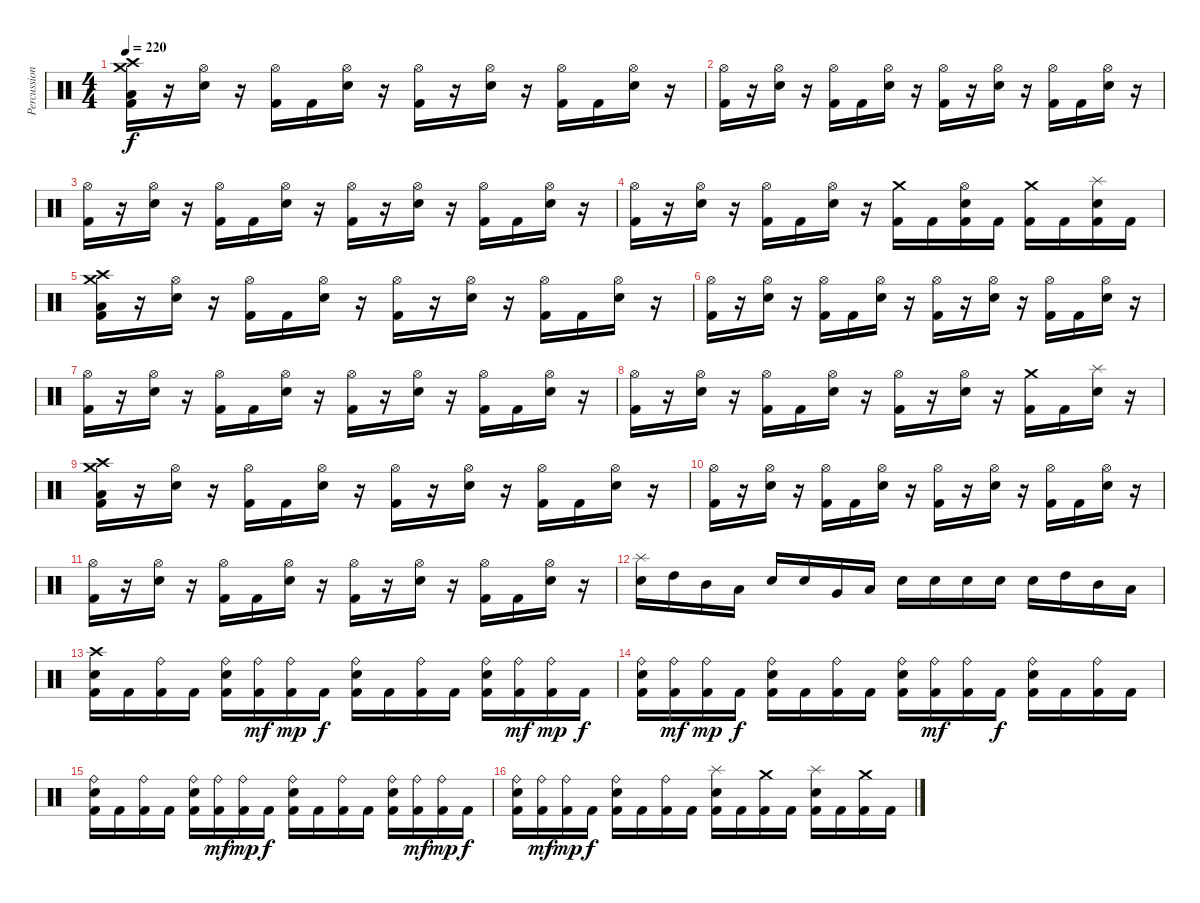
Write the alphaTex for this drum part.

\track ("Percussion" "Percussion") {instrument percussion}
\staff {score}
\articulation defaults
\ts (4 4)
\tempo 220
\clef neutral
\ks c
("Crash medium (hit)" "Crash high (hit)" "Low Floor Tom (hit)" "Kick (hit) 2").16{dy f} r.16 ("Hi-Hat (open)" "Electric Snare (hit)").16 r.16 ("Hi-Hat (open)" "Kick (hit) 2").16 "Kick (hit) 2".16 ("Hi-Hat (open)" "Electric Snare (hit)").16 r.16 ("Hi-Hat (open)" "Kick (hit) 2").16 r.16 ("Hi-Hat (open)" "Electric Snare (hit)").16 r.16 ("Hi-Hat (open)" "Kick (hit) 2").16 "Kick (hit) 2".16 ("Hi-Hat (open)" "Electric Snare (hit)").16 r.16 |
("Hi-Hat (open)" "Kick (hit) 2").16 r.16 ("Hi-Hat (open)" "Electric Snare (hit)").16 r.16 ("Hi-Hat (open)" "Kick (hit) 2").16 "Kick (hit) 2".16 ("Hi-Hat (open)" "Electric Snare (hit)").16 r.16 ("Hi-Hat (open)" "Kick (hit) 2").16 r.16 ("Hi-Hat (open)" "Electric Snare (hit)").16 r.16 ("Hi-Hat (open)" "Kick (hit) 2").16 "Kick (hit) 2".16 ("Hi-Hat (open)" "Electric Snare (hit)").16 r.16 |
("Hi-Hat (open)" "Kick (hit) 2").16 r.16 ("Hi-Hat (open)" "Electric Snare (hit)").16 r.16 ("Hi-Hat (open)" "Kick (hit) 2").16 "Kick (hit) 2".16 ("Hi-Hat (open)" "Electric Snare (hit)").16 r.16 ("Hi-Hat (open)" "Kick (hit) 2").16 r.16 ("Hi-Hat (open)" "Electric Snare (hit)").16 r.16 ("Hi-Hat (open)" "Kick (hit) 2").16 "Kick (hit) 2".16 ("Hi-Hat (open)" "Electric Snare (hit)").16 r.16 |
("Hi-Hat (open)" "Kick (hit) 2").16 r.16 ("Hi-Hat (open)" "Electric Snare (hit)").16 r.16 ("Hi-Hat (open)" "Kick (hit) 2").16 "Kick (hit) 2".16 ("Hi-Hat (open)" "Electric Snare (hit)").16 r.16 ("Crash medium (hit)" "Kick (hit) 2").16 "Kick (hit) 2".16 ("Hi-Hat (open)" "Electric Snare (hit)" "Kick (hit) 2").16 "Kick (hit) 2".16 ("Crash medium (hit)" "Kick (hit) 2").16 "Kick (hit) 2".16 ("Splash (hit)" "Electric Snare (hit)" "Kick (hit) 2").16 "Kick (hit) 2".16 |
("Crash medium (hit)" "Crash high (hit)" "Low Floor Tom (hit)" "Kick (hit) 2").16 r.16 ("Hi-Hat (open)" "Electric Snare (hit)").16 r.16 ("Hi-Hat (open)" "Kick (hit) 2").16 "Kick (hit) 2".16 ("Hi-Hat (open)" "Electric Snare (hit)").16 r.16 ("Hi-Hat (open)" "Kick (hit) 2").16 r.16 ("Hi-Hat (open)" "Electric Snare (hit)").16 r.16 ("Hi-Hat (open)" "Kick (hit) 2").16 "Kick (hit) 2".16 ("Hi-Hat (open)" "Electric Snare (hit)").16 r.16 |
("Hi-Hat (open)" "Kick (hit) 2").16 r.16 ("Hi-Hat (open)" "Electric Snare (hit)").16 r.16 ("Hi-Hat (open)" "Kick (hit) 2").16 "Kick (hit) 2".16 ("Hi-Hat (open)" "Electric Snare (hit)").16 r.16 ("Hi-Hat (open)" "Kick (hit) 2").16 r.16 ("Hi-Hat (open)" "Electric Snare (hit)").16 r.16 ("Hi-Hat (open)" "Kick (hit) 2").16 "Kick (hit) 2".16 ("Hi-Hat (open)" "Electric Snare (hit)").16 r.16 |
("Hi-Hat (open)" "Kick (hit) 2").16 r.16 ("Hi-Hat (open)" "Electric Snare (hit)").16 r.16 ("Hi-Hat (open)" "Kick (hit) 2").16 "Kick (hit) 2".16 ("Hi-Hat (open)" "Electric Snare (hit)").16 r.16 ("Hi-Hat (open)" "Kick (hit) 2").16 r.16 ("Hi-Hat (open)" "Electric Snare (hit)").16 r.16 ("Hi-Hat (open)" "Kick (hit) 2").16 "Kick (hit) 2".16 ("Hi-Hat (open)" "Electric Snare (hit)").16 r.16 |
("Hi-Hat (open)" "Kick (hit) 2").16 r.16 ("Hi-Hat (open)" "Electric Snare (hit)").16 r.16 ("Hi-Hat (open)" "Kick (hit) 2").16 "Kick (hit) 2".16 ("Hi-Hat (open)" "Electric Snare (hit)").16 r.16 ("Hi-Hat (open)" "Kick (hit) 2").16 r.16 ("Hi-Hat (open)" "Electric Snare (hit)").16 r.16 ("Crash medium (hit)" "Kick (hit) 2").16 "Kick (hit) 2".16 ("Splash (hit)" "Electric Snare (hit)").16 r.16 |
("Crash medium (hit)" "Crash high (hit)" "Low Floor Tom (hit)" "Kick (hit) 2").16 r.16 ("Hi-Hat (open)" "Electric Snare (hit)").16 r.16 ("Hi-Hat (open)" "Kick (hit) 2").16 "Kick (hit) 2".16 ("Hi-Hat (open)" "Electric Snare (hit)").16 r.16 ("Hi-Hat (open)" "Kick (hit) 2").16 r.16 ("Hi-Hat (open)" "Electric Snare (hit)").16 r.16 ("Hi-Hat (open)" "Kick (hit) 2").16 "Kick (hit) 2".16 ("Hi-Hat (open)" "Electric Snare (hit)").16 r.16 |
("Hi-Hat (open)" "Kick (hit) 2").16 r.16 ("Hi-Hat (open)" "Electric Snare (hit)").16 r.16 ("Hi-Hat (open)" "Kick (hit) 2").16 "Kick (hit) 2".16 ("Hi-Hat (open)" "Electric Snare (hit)").16 r.16 ("Hi-Hat (open)" "Kick (hit) 2").16 r.16 ("Hi-Hat (open)" "Electric Snare (hit)").16 r.16 ("Hi-Hat (open)" "Kick (hit) 2").16 "Kick (hit) 2".16 ("Hi-Hat (open)" "Electric Snare (hit)").16 r.16 |
("Hi-Hat (open)" "Kick (hit) 2").16 r.16 ("Hi-Hat (open)" "Electric Snare (hit)").16 r.16 ("Hi-Hat (open)" "Kick (hit) 2").16 "Kick (hit) 2".16 ("Hi-Hat (open)" "Electric Snare (hit)").16 r.16 ("Hi-Hat (open)" "Kick (hit) 2").16 r.16 ("Hi-Hat (open)" "Electric Snare (hit)").16 r.16 ("Hi-Hat (open)" "Kick (hit) 2").16 "Kick (hit) 2".16 ("Hi-Hat (open)" "Electric Snare (hit)").16 r.16 |
("Splash (hit)" "Electric Snare (hit)").16 "High Tom (hit)".16 "Mid Tom (hit)".16 "Low Tom (hit)".16 "Electric Snare (hit)".16 "Electric Snare (hit)".16 "Very Low Tom (hit)".16 "Low Floor Tom (hit)".16 "Electric Snare (hit)".16 "Electric Snare (hit)".16 "Electric Snare (hit)".16 "Electric Snare (hit)".16 "Electric Snare (hit)".16 "High Tom (hit)".16 "Mid Tom (hit)".16 "Low Tom (hit)".16 |
("Crash high (hit)" "Electric Snare (hit)" "Kick (hit) 2").16 "Kick (hit) 2".16 ("Ride (bell)" "Kick (hit) 2").16 "Kick (hit) 2".16 ("Ride (bell)" "Electric Snare (hit)" "Kick (hit) 2").16 ("Ride (bell)" "Kick (hit) 2").16{dy mf} ("Ride (bell)" "Kick (hit) 2").16{dy mp} "Kick (hit) 2".16{dy f} ("Ride (bell)" "Electric Snare (hit)" "Kick (hit) 2").16 "Kick (hit) 2".16 ("Ride (bell)" "Kick (hit) 2").16 "Kick (hit) 2".16 ("Ride (bell)" "Electric Snare (hit)" "Kick (hit) 2").16 ("Ride (bell)" "Kick (hit) 2").16{dy mf} ("Ride (bell)" "Kick (hit) 2").16{dy mp} "Kick (hit) 2".16{dy f} |
("Ride (bell)" "Electric Snare (hit)" "Kick (hit) 2").16 ("Ride (bell)" "Kick (hit) 2").16{dy mf} ("Ride (bell)" "Kick (hit) 2").16{dy mp} "Kick (hit) 2".16{dy f} ("Ride (bell)" "Electric Snare (hit)" "Kick (hit) 2").16 "Kick (hit) 2".16 ("Ride (bell)" "Kick (hit) 2").16 "Kick (hit) 2".16 ("Ride (bell)" "Electric Snare (hit)" "Kick (hit) 2").16 ("Ride (bell)" "Kick (hit) 2").16{dy mf} ("Ride (bell)" "Kick (hit) 2").16 "Kick (hit) 2".16{dy f} ("Ride (bell)" "Electric Snare (hit)" "Kick (hit) 2").16 "Kick (hit) 2".16 ("Ride (bell)" "Kick (hit) 2").16 "Kick (hit) 2".16 |
("Ride (bell)" "Electric Snare (hit)" "Kick (hit) 2").16 "Kick (hit) 2".16 ("Ride (bell)" "Kick (hit) 2").16 "Kick (hit) 2".16 ("Ride (bell)" "Electric Snare (hit)" "Kick (hit) 2").16 ("Ride (bell)" "Kick (hit) 2").16{dy mf} ("Ride (bell)" "Kick (hit) 2").16{dy mp} "Kick (hit) 2".16{dy f} ("Ride (bell)" "Electric Snare (hit)" "Kick (hit) 2").16 "Kick (hit) 2".16 ("Ride (bell)" "Kick (hit) 2").16 "Kick (hit) 2".16 ("Ride (bell)" "Electric Snare (hit)" "Kick (hit) 2").16 ("Ride (bell)" "Kick (hit) 2").16{dy mf} ("Ride (bell)" "Kick (hit) 2").16{dy mp} "Kick (hit) 2".16{dy f} |
("Ride (bell)" "Electric Snare (hit)" "Kick (hit) 2").16 ("Ride (bell)" "Kick (hit) 2").16{dy mf} ("Ride (bell)" "Kick (hit) 2").16{dy mp} "Kick (hit) 2".16{dy f} ("Ride (bell)" "Electric Snare (hit)" "Kick (hit) 2").16 "Kick (hit) 2".16 ("Ride (bell)" "Kick (hit) 2").16 "Kick (hit) 2".16 ("Splash (hit)" "Electric Snare (hit)" "Kick (hit) 2").16 "Kick (hit) 2".16 ("Crash medium (hit)" "Kick (hit) 2").16 "Kick (hit) 2".16 ("Splash (hit)" "Electric Snare (hit)" "Kick (hit) 2").16 "Kick (hit) 2".16 ("Crash medium (hit)" "Kick (hit) 2").16 "Kick (hit) 2".16
